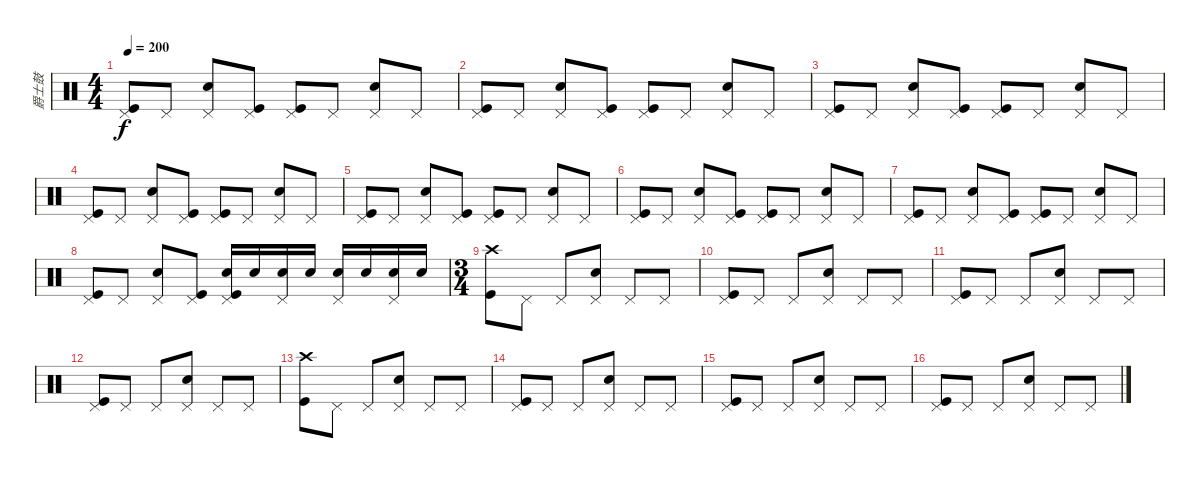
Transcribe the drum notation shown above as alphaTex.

\track ("爵士鼓" "爵士鼓") {instrument percussion}
\staff {score}
\articulation defaults
\ts (4 4)
\tempo 200
\clef neutral
\ks c
("Pedal Hi-Hat (hit)" "Kick (hit)").8{dy f} "Pedal Hi-Hat (hit)".8 ("Pedal Hi-Hat (hit)" "Electric Snare (hit)").8 ("Pedal Hi-Hat (hit)" "Kick (hit)").8 ("Pedal Hi-Hat (hit)" "Kick (hit)").8 "Pedal Hi-Hat (hit)".8 ("Pedal Hi-Hat (hit)" "Electric Snare (hit)").8 "Pedal Hi-Hat (hit)".8 |
("Pedal Hi-Hat (hit)" "Kick (hit)").8 "Pedal Hi-Hat (hit)".8 ("Pedal Hi-Hat (hit)" "Electric Snare (hit)").8 ("Pedal Hi-Hat (hit)" "Kick (hit)").8 ("Pedal Hi-Hat (hit)" "Kick (hit)").8 "Pedal Hi-Hat (hit)".8 ("Pedal Hi-Hat (hit)" "Electric Snare (hit)").8 "Pedal Hi-Hat (hit)".8 |
("Pedal Hi-Hat (hit)" "Kick (hit)").8 "Pedal Hi-Hat (hit)".8 ("Pedal Hi-Hat (hit)" "Electric Snare (hit)").8 ("Pedal Hi-Hat (hit)" "Kick (hit)").8 ("Pedal Hi-Hat (hit)" "Kick (hit)").8 "Pedal Hi-Hat (hit)".8 ("Pedal Hi-Hat (hit)" "Electric Snare (hit)").8 "Pedal Hi-Hat (hit)".8 |
("Pedal Hi-Hat (hit)" "Kick (hit)").8 "Pedal Hi-Hat (hit)".8 ("Pedal Hi-Hat (hit)" "Electric Snare (hit)").8 ("Pedal Hi-Hat (hit)" "Kick (hit)").8 ("Pedal Hi-Hat (hit)" "Kick (hit)").8 "Pedal Hi-Hat (hit)".8 ("Pedal Hi-Hat (hit)" "Electric Snare (hit)").8 "Pedal Hi-Hat (hit)".8 |
("Pedal Hi-Hat (hit)" "Kick (hit)").8 "Pedal Hi-Hat (hit)".8 ("Pedal Hi-Hat (hit)" "Electric Snare (hit)").8 ("Pedal Hi-Hat (hit)" "Kick (hit)").8 ("Pedal Hi-Hat (hit)" "Kick (hit)").8 "Pedal Hi-Hat (hit)".8 ("Pedal Hi-Hat (hit)" "Electric Snare (hit)").8 "Pedal Hi-Hat (hit)".8 |
("Pedal Hi-Hat (hit)" "Kick (hit)").8 "Pedal Hi-Hat (hit)".8 ("Pedal Hi-Hat (hit)" "Electric Snare (hit)").8 ("Pedal Hi-Hat (hit)" "Kick (hit)").8 ("Pedal Hi-Hat (hit)" "Kick (hit)").8 "Pedal Hi-Hat (hit)".8 ("Pedal Hi-Hat (hit)" "Electric Snare (hit)").8 "Pedal Hi-Hat (hit)".8 |
("Pedal Hi-Hat (hit)" "Kick (hit)").8 "Pedal Hi-Hat (hit)".8 ("Pedal Hi-Hat (hit)" "Electric Snare (hit)").8 ("Pedal Hi-Hat (hit)" "Kick (hit)").8 ("Pedal Hi-Hat (hit)" "Kick (hit)").8 "Pedal Hi-Hat (hit)".8 ("Pedal Hi-Hat (hit)" "Electric Snare (hit)").8 "Pedal Hi-Hat (hit)".8 |
("Pedal Hi-Hat (hit)" "Kick (hit)").8 "Pedal Hi-Hat (hit)".8 ("Pedal Hi-Hat (hit)" "Electric Snare (hit)").8 ("Pedal Hi-Hat (hit)" "Kick (hit)").8 ("Pedal Hi-Hat (hit)" "Snare (hit) 2" "Kick (hit)").16 "Snare (hit) 2".16 ("Pedal Hi-Hat (hit)" "Snare (hit) 2").16 "Snare (hit) 2".16 ("Pedal Hi-Hat (hit)" "Snare (hit) 2").16 "Snare (hit) 2".16 ("Pedal Hi-Hat (hit)" "Snare (hit) 2").16 "Snare (hit) 2".16 |
\ts (3 4)
("Crash high (hit)" "Kick (hit)").8 "Pedal Hi-Hat (hit)".8 "Pedal Hi-Hat (hit)".8 ("Pedal Hi-Hat (hit)" "Electric Snare (hit)").8 "Pedal Hi-Hat (hit)".8 "Pedal Hi-Hat (hit)".8 |
("Pedal Hi-Hat (hit)" "Kick (hit)").8 "Pedal Hi-Hat (hit)".8 "Pedal Hi-Hat (hit)".8 ("Pedal Hi-Hat (hit)" "Electric Snare (hit)").8 "Pedal Hi-Hat (hit)".8 "Pedal Hi-Hat (hit)".8 |
("Pedal Hi-Hat (hit)" "Kick (hit)").8 "Pedal Hi-Hat (hit)".8 "Pedal Hi-Hat (hit)".8 ("Pedal Hi-Hat (hit)" "Electric Snare (hit)").8 "Pedal Hi-Hat (hit)".8 "Pedal Hi-Hat (hit)".8 |
("Pedal Hi-Hat (hit)" "Kick (hit)").8 "Pedal Hi-Hat (hit)".8 "Pedal Hi-Hat (hit)".8 ("Pedal Hi-Hat (hit)" "Electric Snare (hit)").8 "Pedal Hi-Hat (hit)".8 "Pedal Hi-Hat (hit)".8 |
("Crash high (hit)" "Kick (hit)").8 "Pedal Hi-Hat (hit)".8 "Pedal Hi-Hat (hit)".8 ("Pedal Hi-Hat (hit)" "Electric Snare (hit)").8 "Pedal Hi-Hat (hit)".8 "Pedal Hi-Hat (hit)".8 |
("Pedal Hi-Hat (hit)" "Kick (hit)").8 "Pedal Hi-Hat (hit)".8 "Pedal Hi-Hat (hit)".8 ("Pedal Hi-Hat (hit)" "Electric Snare (hit)").8 "Pedal Hi-Hat (hit)".8 "Pedal Hi-Hat (hit)".8 |
("Pedal Hi-Hat (hit)" "Kick (hit)").8 "Pedal Hi-Hat (hit)".8 "Pedal Hi-Hat (hit)".8 ("Pedal Hi-Hat (hit)" "Electric Snare (hit)").8 "Pedal Hi-Hat (hit)".8 "Pedal Hi-Hat (hit)".8 |
("Pedal Hi-Hat (hit)" "Kick (hit)").8 "Pedal Hi-Hat (hit)".8 "Pedal Hi-Hat (hit)".8 ("Pedal Hi-Hat (hit)" "Electric Snare (hit)").8 "Pedal Hi-Hat (hit)".8 "Pedal Hi-Hat (hit)".8
